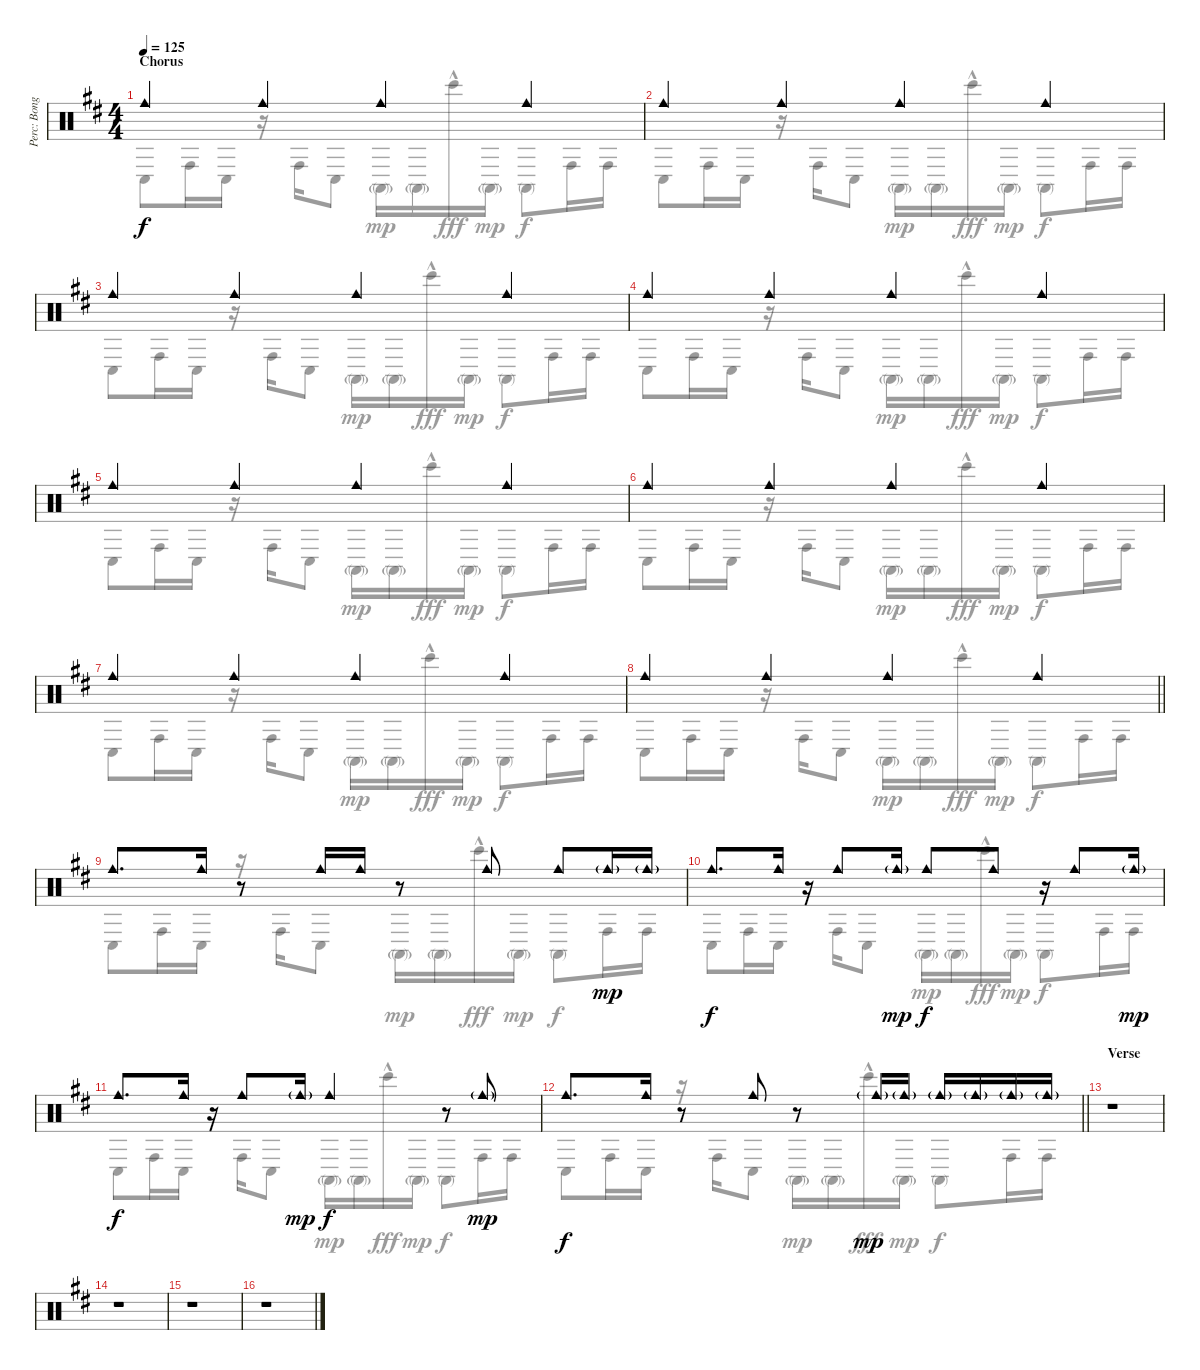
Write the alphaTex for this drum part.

\track ("Perc: Bongos + Cowbell + Triangle" "Perc: Bong") {instrument percussion}
\staff {score}
\articulation defaults
\voice
\ts (4 4)
\section ("" "Chorus")
\tempo 125
\clef neutral
\ks bminor "Cowbell medium (hit)".4{dy f} "Cowbell medium (hit)".4 "Cowbell medium (hit)".4 "Cowbell medium (hit)".4
|
"Cowbell medium (hit)".4 "Cowbell medium (hit)".4 "Cowbell medium (hit)".4 "Cowbell medium (hit)".4 |
"Cowbell medium (hit)".4 "Cowbell medium (hit)".4 "Cowbell medium (hit)".4 "Cowbell medium (hit)".4 |
"Cowbell medium (hit)".4 "Cowbell medium (hit)".4 "Cowbell medium (hit)".4 "Cowbell medium (hit)".4 |
"Cowbell medium (hit)".4 "Cowbell medium (hit)".4 "Cowbell medium (hit)".4 "Cowbell medium (hit)".4 |
"Cowbell medium (hit)".4 "Cowbell medium (hit)".4 "Cowbell medium (hit)".4 "Cowbell medium (hit)".4 |
"Cowbell medium (hit)".4 "Cowbell medium (hit)".4 "Cowbell medium (hit)".4 "Cowbell medium (hit)".4 |
\barLineRight lightlight "Cowbell medium (hit)".4 "Cowbell medium (hit)".4 "Cowbell medium (hit)".4 "Cowbell medium (hit)".4
|
\section ("" "")
"Cowbell medium (hit)".8{d} "Cowbell medium (hit)".16 r.8 "Cowbell medium (hit)".16 "Cowbell medium (hit)".16 r.8 "Cowbell medium (hit)".8 "Cowbell medium (hit)".8 "Cowbell medium (hit)"{g}.16{dy mp} "Cowbell medium (hit)"{g}.16 |
"Cowbell medium (hit)".8{d dy f} "Cowbell medium (hit)".16 r.16 "Cowbell medium (hit)".8 "Cowbell medium (hit)"{g}.16{dy mp} "Cowbell medium (hit)".8{dy f} "Cowbell medium (hit)".8 r.16 "Cowbell medium (hit)".8 "Cowbell medium (hit)"{g}.16{dy mp} |
"Cowbell medium (hit)".8{d dy f} "Cowbell medium (hit)".16 r.16 "Cowbell medium (hit)".8 "Cowbell medium (hit)"{g}.16{dy mp} "Cowbell medium (hit)".4{dy f} r.8 "Cowbell medium (hit)"{g}.8{dy mp} |
\barLineRight lightlight "Cowbell medium (hit)".8{d dy f} "Cowbell medium (hit)".16
r.8 "Cowbell medium (hit)".8 r.8 "Cowbell medium (hit)"{g}.16{dy mp} "Cowbell medium (hit)"{g}.16 "Cowbell medium (hit)"{g}.16 "Cowbell medium (hit)"{g}.16 "Cowbell medium (hit)"{g}.16 "Cowbell medium (hit)"{g}.16 |
\section ("" "Verse")
r.1 |
r.1 |
r.1 |
r.1
\voice
\clef neutral
\ottava regular
\simile none
\ks bminor "Conga low (hit)".8{dy f} "Conga high (hit)".16 "Conga low (hit)".16
r.16 "Conga high (hit)".16 "Conga low (hit)".8 "Conga high (mute)"{g}.16{dy mp} "Conga high (mute)"{g}.16 "Bongo High (hit)"{hac}.16{dy fff} "Conga high (mute)"{g}.16{dy mp} "Conga high (mute)".8{dy f} "Conga high (hit)".16 "Conga high (hit)".16 |
"Conga low (hit)".8 "Conga high (hit)".16 "Conga low (hit)".16 r.16 "Conga high (hit)".16 "Conga low (hit)".8 "Conga high (mute)"{g}.16{dy mp} "Conga high (mute)"{g}.16 "Bongo High (hit)"{hac}.16{dy fff} "Conga high (mute)"{g}.16{dy mp} "Conga high (mute)".8{dy f} "Conga high (hit)".16 "Conga high (hit)".16 |
"Conga low (hit)".8 "Conga high (hit)".16 "Conga low (hit)".16 r.16 "Conga high (hit)".16 "Conga low (hit)".8 "Conga high (mute)"{g}.16{dy mp} "Conga high (mute)"{g}.16 "Bongo High (hit)"{hac}.16{dy fff} "Conga high (mute)"{g}.16{dy mp} "Conga high (mute)".8{dy f} "Conga high (hit)".16 "Conga high (hit)".16 |
"Conga low (hit)".8 "Conga high (hit)".16 "Conga low (hit)".16 r.16 "Conga high (hit)".16 "Conga low (hit)".8 "Conga high (mute)"{g}.16{dy mp} "Conga high (mute)"{g}.16 "Bongo High (hit)"{hac}.16{dy fff} "Conga high (mute)"{g}.16{dy mp} "Conga high (mute)".8{dy f} "Conga high (hit)".16 "Conga high (hit)".16 |
"Conga low (hit)".8 "Conga high (hit)".16 "Conga low (hit)".16 r.16 "Conga high (hit)".16 "Conga low (hit)".8 "Conga high (mute)"{g}.16{dy mp} "Conga high (mute)"{g}.16 "Bongo High (hit)"{hac}.16{dy fff} "Conga high (mute)"{g}.16{dy mp} "Conga high (mute)".8{dy f} "Conga high (hit)".16 "Conga high (hit)".16 |
"Conga low (hit)".8 "Conga high (hit)".16 "Conga low (hit)".16 r.16 "Conga high (hit)".16 "Conga low (hit)".8 "Conga high (mute)"{g}.16{dy mp} "Conga high (mute)"{g}.16 "Bongo High (hit)"{hac}.16{dy fff} "Conga high (mute)"{g}.16{dy mp} "Conga high (mute)".8{dy f} "Conga high (hit)".16 "Conga high (hit)".16 |
"Conga low (hit)".8 "Conga high (hit)".16 "Conga low (hit)".16 r.16 "Conga high (hit)".16 "Conga low (hit)".8 "Conga high (mute)"{g}.16{dy mp} "Conga high (mute)"{g}.16 "Bongo High (hit)"{hac}.16{dy fff} "Conga high (mute)"{g}.16{dy mp} "Conga high (mute)".8{dy f} "Conga high (hit)".16 "Conga high (hit)".16 |
\barLineRight lightlight "Conga low (hit)".8 "Conga high (hit)".16 "Conga low (hit)".16
r.16 "Conga high (hit)".16 "Conga low (hit)".8 "Conga high (mute)"{g}.16{dy mp} "Conga high (mute)"{g}.16 "Bongo High (hit)"{hac}.16{dy fff} "Conga high (mute)"{g}.16{dy mp} "Conga high (mute)".8{dy f} "Conga high (hit)".16 "Conga high (hit)".16 |
"Conga low (hit)".8 "Conga high (hit)".16 "Conga low (hit)".16 r.16 "Conga high (hit)".16 "Conga low (hit)".8 "Conga high (mute)"{g}.16{dy mp} "Conga high (mute)"{g}.16 "Bongo High (hit)"{hac}.16{dy fff} "Conga high (mute)"{g}.16{dy mp} "Conga high (mute)".8{dy f} "Conga high (hit)".16 "Conga high (hit)".16 |
"Conga low (hit)".8 "Conga high (hit)".16 "Conga low (hit)".16 r.16 "Conga high (hit)".16 "Conga low (hit)".8 "Conga high (mute)"{g}.16{dy mp} "Conga high (mute)"{g}.16 "Bongo High (hit)"{hac}.16{dy fff} "Conga high (mute)"{g}.16{dy mp} "Conga high (mute)".8{dy f} "Conga high (hit)".16 "Conga high (hit)".16 |
"Conga low (hit)".8 "Conga high (hit)".16 "Conga low (hit)".16 r.16 "Conga high (hit)".16 "Conga low (hit)".8 "Conga high (mute)"{g}.16{dy mp} "Conga high (mute)"{g}.16 "Bongo High (hit)"{hac}.16{dy fff} "Conga high (mute)"{g}.16{dy mp} "Conga high (mute)".8{dy f} "Conga high (hit)".16 "Conga high (hit)".16 |
\barLineRight lightlight "Conga low (hit)".8 "Conga high (hit)".16 "Conga low (hit)".16
r.16 "Conga high (hit)".16 "Conga low (hit)".8 "Conga high (mute)"{g}.16{dy mp} "Conga high (mute)"{g}.16 "Bongo High (hit)"{hac}.16{dy fff} "Conga high (mute)"{g}.16{dy mp} "Conga high (mute)".8{dy f} "Conga high (hit)".16 "Conga high (hit)".16 |
|
|
|
